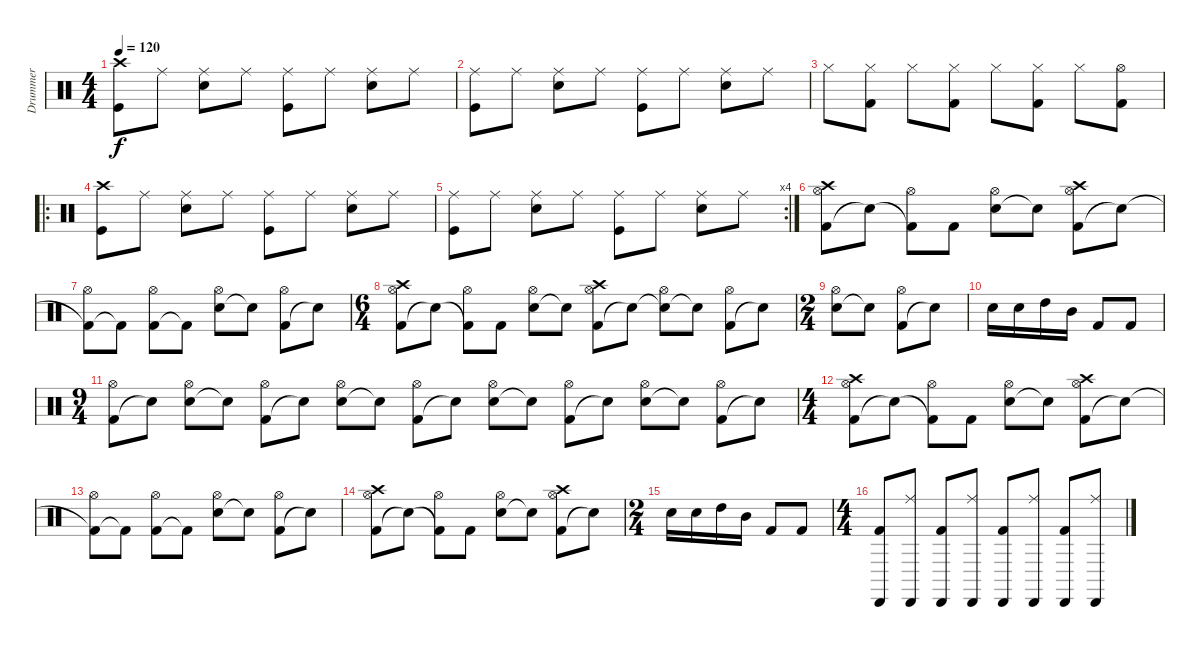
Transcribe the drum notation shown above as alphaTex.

\track ("Drummer" "Drummer") {instrument percussion}
\staff {score}
\articulation defaults
\ts (4 4)
\tempo 120
\clef neutral
\ks c
("Crash high (hit)" "Kick (hit)").8{dy f} "Ride (middle)".8 ("Ride (middle)" "Snare (hit) 2").8 "Ride (middle)".8 ("Ride (middle)" "Kick (hit)").8 "Ride (middle)".8 ("Ride (middle)" "Snare (hit) 2").8 "Ride (middle)".8 |
("Ride (middle)" "Kick (hit)").8 "Ride (middle)".8 ("Ride (middle)" "Snare (hit) 2").8 "Ride (middle)".8 ("Ride (middle)" "Kick (hit)").8 "Ride (middle)".8 ("Ride (middle)" "Snare (hit) 2").8 "Ride (middle)".8 |
"Hi-Hat (closed)".8 ("Hi-Hat (closed)" "Kick (hit) 2").8 "Hi-Hat (closed)".8 ("Hi-Hat (closed)" "Kick (hit) 2").8 "Hi-Hat (closed)".8 ("Hi-Hat (closed)" "Kick (hit) 2").8 "Hi-Hat (closed)".8 ("Hi-Hat (open)" "Kick (hit) 2").8 |
\ro
("Crash high (hit)" "Kick (hit)").8 "Ride (middle)".8 ("Ride (middle)" "Snare (hit) 2").8 "Ride (middle)".8 ("Ride (middle)" "Kick (hit)").8 "Ride (middle)".8 ("Ride (middle)" "Snare (hit) 2").8 "Ride (middle)".8 |
\rc 4
("Ride (middle)" "Kick (hit)").8 "Ride (middle)".8 ("Ride (middle)" "Snare (hit) 2").8 "Ride (middle)".8 ("Ride (middle)" "Kick (hit)").8 "Ride (middle)".8 ("Ride (middle)" "Snare (hit) 2").8 "Ride (middle)".8 |
("Kick (hit) 2" "Hi-Hat (open)" "Crash high (hit)").8 "Snare (hit)"{t}.8 ("Kick (hit) 2"{t} "Hi-Hat (open)").8 "Kick (hit) 2".8 ("Electric Snare (hit)" "Hi-Hat (open)").8 "Snare (hit)"{t}.8 ("Kick (hit) 2" "Hi-Hat (open)" "Crash high (hit)").8 "Snare (hit)"{t}.8 |
("Kick (hit) 2"{t} "Hi-Hat (open)").8 "Kick (hit) 2"{t}.8 ("Kick (hit) 2" "Hi-Hat (open)").8 "Kick (hit) 2"{t}.8 ("Electric Snare (hit)" "Hi-Hat (open)").8 "Snare (hit)"{t}.8 ("Kick (hit) 2" "Hi-Hat (open)").8 "Snare (hit)"{t}.8 |
\ts (6 4)
("Kick (hit) 2" "Hi-Hat (open)" "Crash high (hit)").8 "Snare (hit)"{t}.8 ("Kick (hit) 2"{t} "Hi-Hat (open)").8 "Kick (hit) 2".8 ("Electric Snare (hit)" "Hi-Hat (open)").8 "Snare (hit)"{t}.8 ("Kick (hit) 2" "Hi-Hat (open)" "Crash high (hit)").8 "Snare (hit)"{t}.8 ("Snare (hit)"{t} "Hi-Hat (open)").8 "Snare (hit)"{t}.8 ("Kick (hit) 2" "Hi-Hat (open)").8 "Snare (hit)"{t}.8 |
\ts (2 4)
("Electric Snare (hit)" "Hi-Hat (open)").8 "Snare (hit)"{t}.8 ("Kick (hit) 2" "Hi-Hat (open)").8 "Snare (hit)"{t}.8 |
"Electric Snare (hit)".16 "Electric Snare (hit)".16 "High Tom (hit)".16 "Mid Tom (hit)".16 "Kick (hit) 2".8 "Kick (hit) 2".8 |
\ts (9 4)
("Kick (hit) 2" "Hi-Hat (open)").8 "Snare (hit)"{t}.8 ("Electric Snare (hit)" "Hi-Hat (open)").8 "Snare (hit)"{t}.8 ("Kick (hit) 2" "Hi-Hat (open)").8 "Snare (hit)"{t}.8 ("Electric Snare (hit)" "Hi-Hat (open)").8 "Snare (hit)"{t}.8 ("Kick (hit) 2" "Hi-Hat (open)").8 "Snare (hit)"{t}.8 ("Electric Snare (hit)" "Hi-Hat (open)").8 "Snare (hit)"{t}.8 ("Kick (hit) 2" "Hi-Hat (open)").8 "Snare (hit)"{t}.8 ("Electric Snare (hit)" "Hi-Hat (open)").8 "Snare (hit)"{t}.8 ("Kick (hit) 2" "Hi-Hat (open)").8 "Snare (hit)"{t}.8 |
\ts (4 4)
("Kick (hit) 2" "Hi-Hat (open)" "Crash high (hit)").8 "Snare (hit)"{t}.8 ("Kick (hit) 2"{t} "Hi-Hat (open)").8 "Kick (hit) 2".8 ("Electric Snare (hit)" "Hi-Hat (open)").8 "Snare (hit)"{t}.8 ("Kick (hit) 2" "Hi-Hat (open)" "Crash high (hit)").8 "Snare (hit)"{t}.8 |
("Kick (hit) 2"{t} "Hi-Hat (open)").8 "Kick (hit) 2"{t}.8 ("Kick (hit) 2" "Hi-Hat (open)").8 "Kick (hit) 2"{t}.8 ("Electric Snare (hit)" "Hi-Hat (open)").8 "Snare (hit)"{t}.8 ("Kick (hit) 2" "Hi-Hat (open)").8 "Snare (hit)"{t}.8 |
("Kick (hit) 2" "Hi-Hat (open)" "Crash high (hit)").8 "Snare (hit)"{t}.8 ("Kick (hit) 2"{t} "Hi-Hat (open)").8 "Kick (hit) 2".8 ("Electric Snare (hit)" "Hi-Hat (open)").8 "Snare (hit)"{t}.8 ("Kick (hit) 2" "Hi-Hat (open)" "Crash high (hit)").8 "Snare (hit)"{t}.8 |
\ts (2 4)
"Electric Snare (hit)".16 "Electric Snare (hit)".16 "High Tom (hit)".16 "Mid Tom (hit)".16 "Kick (hit) 2".8 "Kick (hit) 2".8 |
\ts (4 4)
("Kick (hit) 2" "Cabasa (hit)").8 ("Ride (middle)" "Cabasa (hit)").8 ("Kick (hit) 2" "Cabasa (hit)").8 ("Ride (middle)" "Cabasa (hit)").8 ("Kick (hit) 2" "Cabasa (hit)").8 ("Ride (middle)" "Cabasa (hit)").8 ("Kick (hit) 2" "Cabasa (hit)").8 ("Ride (middle)" "Cabasa (hit)").8
